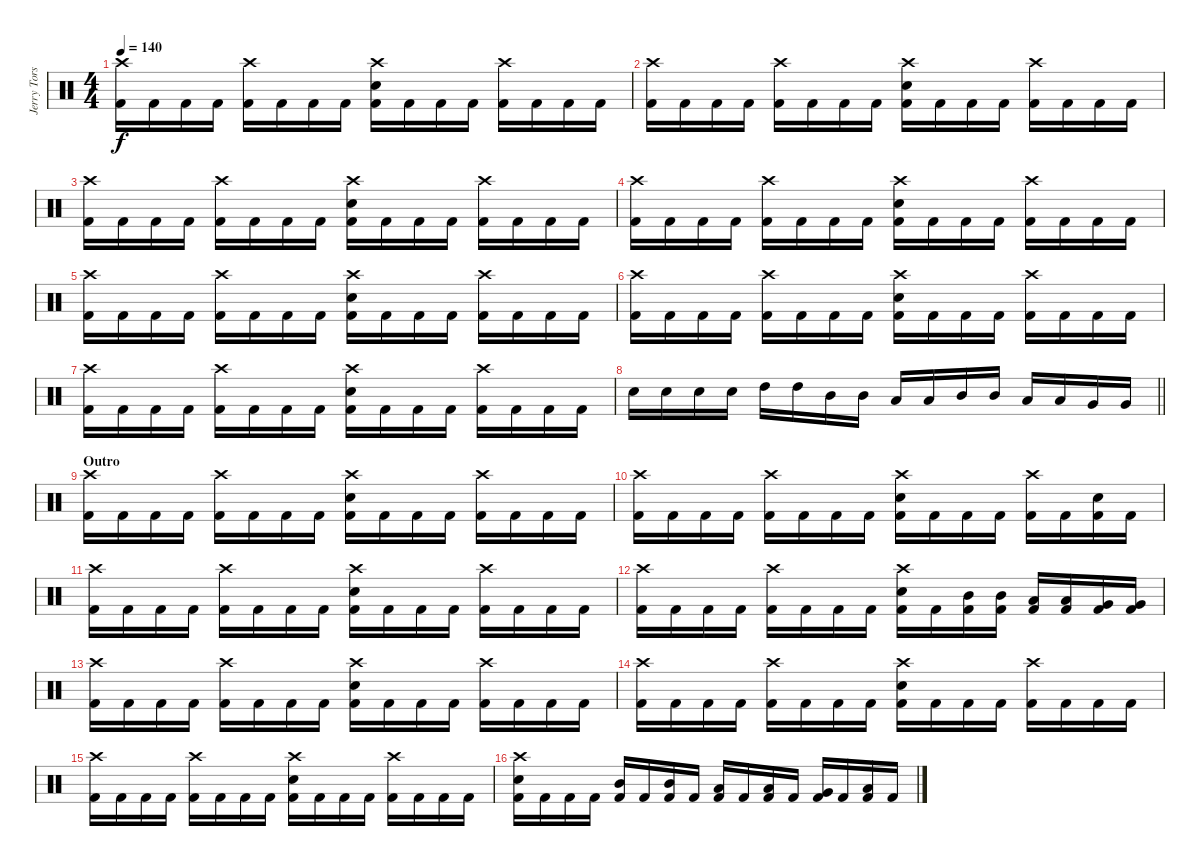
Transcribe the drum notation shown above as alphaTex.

\track ("Jerry Torstensson" "Jerry Tors") {instrument percussion}
\staff {score}
\articulation defaults
\ts (4 4)
\tempo 140
\clef neutral
\ks c
("Crash high (hit)" "Kick (hit) 2").16{dy f} "Kick (hit) 2".16 "Kick (hit) 2".16 "Kick (hit) 2".16 ("Crash high (hit)" "Kick (hit) 2").16 "Kick (hit) 2".16 "Kick (hit) 2".16 "Kick (hit) 2".16 ("Crash high (hit)" "Snare (hit) 2" "Kick (hit) 2").16 "Kick (hit) 2".16 "Kick (hit) 2".16 "Kick (hit) 2".16 ("Crash high (hit)" "Kick (hit) 2").16 "Kick (hit) 2".16 "Kick (hit) 2".16 "Kick (hit) 2".16 |
("Crash high (hit)" "Kick (hit) 2").16 "Kick (hit) 2".16 "Kick (hit) 2".16 "Kick (hit) 2".16 ("Crash high (hit)" "Kick (hit) 2").16 "Kick (hit) 2".16 "Kick (hit) 2".16 "Kick (hit) 2".16 ("Crash high (hit)" "Snare (hit) 2" "Kick (hit) 2").16 "Kick (hit) 2".16 "Kick (hit) 2".16 "Kick (hit) 2".16 ("Crash high (hit)" "Kick (hit) 2").16 "Kick (hit) 2".16 "Kick (hit) 2".16 "Kick (hit) 2".16 |
("Crash high (hit)" "Kick (hit) 2").16 "Kick (hit) 2".16 "Kick (hit) 2".16 "Kick (hit) 2".16 ("Crash high (hit)" "Kick (hit) 2").16 "Kick (hit) 2".16 "Kick (hit) 2".16 "Kick (hit) 2".16 ("Crash high (hit)" "Snare (hit) 2" "Kick (hit) 2").16 "Kick (hit) 2".16 "Kick (hit) 2".16 "Kick (hit) 2".16 ("Crash high (hit)" "Kick (hit) 2").16 "Kick (hit) 2".16 "Kick (hit) 2".16 "Kick (hit) 2".16 |
("Crash high (hit)" "Kick (hit) 2").16 "Kick (hit) 2".16 "Kick (hit) 2".16 "Kick (hit) 2".16 ("Crash high (hit)" "Kick (hit) 2").16 "Kick (hit) 2".16 "Kick (hit) 2".16 "Kick (hit) 2".16 ("Crash high (hit)" "Snare (hit) 2" "Kick (hit) 2").16 "Kick (hit) 2".16 "Kick (hit) 2".16 "Kick (hit) 2".16 ("Crash high (hit)" "Kick (hit) 2").16 "Kick (hit) 2".16 "Kick (hit) 2".16 "Kick (hit) 2".16 |
("Crash high (hit)" "Kick (hit) 2").16 "Kick (hit) 2".16 "Kick (hit) 2".16 "Kick (hit) 2".16 ("Crash high (hit)" "Kick (hit) 2").16 "Kick (hit) 2".16 "Kick (hit) 2".16 "Kick (hit) 2".16 ("Crash high (hit)" "Snare (hit) 2" "Kick (hit) 2").16 "Kick (hit) 2".16 "Kick (hit) 2".16 "Kick (hit) 2".16 ("Crash high (hit)" "Kick (hit) 2").16 "Kick (hit) 2".16 "Kick (hit) 2".16 "Kick (hit) 2".16 |
("Crash high (hit)" "Kick (hit) 2").16 "Kick (hit) 2".16 "Kick (hit) 2".16 "Kick (hit) 2".16 ("Crash high (hit)" "Kick (hit) 2").16 "Kick (hit) 2".16 "Kick (hit) 2".16 "Kick (hit) 2".16 ("Crash high (hit)" "Snare (hit) 2" "Kick (hit) 2").16 "Kick (hit) 2".16 "Kick (hit) 2".16 "Kick (hit) 2".16 ("Crash high (hit)" "Kick (hit) 2").16 "Kick (hit) 2".16 "Kick (hit) 2".16 "Kick (hit) 2".16 |
("Crash high (hit)" "Kick (hit) 2").16 "Kick (hit) 2".16 "Kick (hit) 2".16 "Kick (hit) 2".16 ("Crash high (hit)" "Kick (hit) 2").16 "Kick (hit) 2".16 "Kick (hit) 2".16 "Kick (hit) 2".16 ("Crash high (hit)" "Snare (hit) 2" "Kick (hit) 2").16 "Kick (hit) 2".16 "Kick (hit) 2".16 "Kick (hit) 2".16 ("Crash high (hit)" "Kick (hit) 2").16 "Kick (hit) 2".16 "Kick (hit) 2".16 "Kick (hit) 2".16 |
\barLineRight lightlight "Snare (hit) 2".16 "Snare (hit) 2".16 "Snare (hit) 2".16 "Snare (hit) 2".16 "High Tom (hit)".16 "High Tom (hit)".16 "Mid Tom (hit)".16 "Mid Tom (hit)".16 "Low Tom (hit)".16 "Low Tom (hit)".16 "Mid Tom (hit)".16 "Mid Tom (hit)".16 "Low Tom (hit)".16 "Low Tom (hit)".16 "Very Low Tom (hit)".16 "Very Low Tom (hit)".16
|
\section ("" "Outro")
("Crash high (hit)" "Kick (hit) 2").16 "Kick (hit) 2".16 "Kick (hit) 2".16 "Kick (hit) 2".16 ("Crash high (hit)" "Kick (hit) 2").16 "Kick (hit) 2".16 "Kick (hit) 2".16 "Kick (hit) 2".16 ("Crash high (hit)" "Snare (hit) 2" "Kick (hit) 2").16 "Kick (hit) 2".16 "Kick (hit) 2".16 "Kick (hit) 2".16 ("Crash high (hit)" "Kick (hit) 2").16 "Kick (hit) 2".16 "Kick (hit) 2".16 "Kick (hit) 2".16 |
("Crash high (hit)" "Kick (hit) 2").16 "Kick (hit) 2".16 "Kick (hit) 2".16 "Kick (hit) 2".16 ("Crash high (hit)" "Kick (hit) 2").16 "Kick (hit) 2".16 "Kick (hit) 2".16 "Kick (hit) 2".16 ("Crash high (hit)" "Snare (hit) 2" "Kick (hit) 2").16 "Kick (hit) 2".16 "Kick (hit) 2".16 "Kick (hit) 2".16 ("Crash high (hit)" "Kick (hit) 2").16 "Kick (hit) 2".16 ("Snare (hit) 2" "Kick (hit) 2").16 "Kick (hit) 2".16 |
("Crash high (hit)" "Kick (hit) 2").16 "Kick (hit) 2".16 "Kick (hit) 2".16 "Kick (hit) 2".16 ("Crash high (hit)" "Kick (hit) 2").16 "Kick (hit) 2".16 "Kick (hit) 2".16 "Kick (hit) 2".16 ("Crash high (hit)" "Snare (hit) 2" "Kick (hit) 2").16 "Kick (hit) 2".16 "Kick (hit) 2".16 "Kick (hit) 2".16 ("Crash high (hit)" "Kick (hit) 2").16 "Kick (hit) 2".16 "Kick (hit) 2".16 "Kick (hit) 2".16 |
("Crash high (hit)" "Kick (hit) 2").16 "Kick (hit) 2".16 "Kick (hit) 2".16 "Kick (hit) 2".16 ("Crash high (hit)" "Kick (hit) 2").16 "Kick (hit) 2".16 "Kick (hit) 2".16 "Kick (hit) 2".16 ("Crash high (hit)" "Snare (hit) 2" "Kick (hit) 2").16 "Kick (hit) 2".16 ("Mid Tom (hit)" "Kick (hit) 2").16 ("Mid Tom (hit)" "Kick (hit) 2").16 ("Low Tom (hit)" "Kick (hit) 2").16 ("Low Tom (hit)" "Kick (hit) 2").16 ("Very Low Tom (hit)" "Kick (hit) 2").16 ("Very Low Tom (hit)" "Kick (hit) 2").16 |
("Crash high (hit)" "Kick (hit) 2").16 "Kick (hit) 2".16 "Kick (hit) 2".16 "Kick (hit) 2".16 ("Crash high (hit)" "Kick (hit) 2").16 "Kick (hit) 2".16 "Kick (hit) 2".16 "Kick (hit) 2".16 ("Crash high (hit)" "Snare (hit) 2" "Kick (hit) 2").16 "Kick (hit) 2".16 "Kick (hit) 2".16 "Kick (hit) 2".16 ("Crash high (hit)" "Kick (hit) 2").16 "Kick (hit) 2".16 "Kick (hit) 2".16 "Kick (hit) 2".16 |
("Crash high (hit)" "Kick (hit) 2").16 "Kick (hit) 2".16 "Kick (hit) 2".16 "Kick (hit) 2".16 ("Crash high (hit)" "Kick (hit) 2").16 "Kick (hit) 2".16 "Kick (hit) 2".16 "Kick (hit) 2".16 ("Crash high (hit)" "Snare (hit) 2" "Kick (hit) 2").16 "Kick (hit) 2".16 "Kick (hit) 2".16 "Kick (hit) 2".16 ("Crash high (hit)" "Kick (hit) 2").16 "Kick (hit) 2".16 "Kick (hit) 2".16 "Kick (hit) 2".16 |
("Crash high (hit)" "Kick (hit) 2").16 "Kick (hit) 2".16 "Kick (hit) 2".16 "Kick (hit) 2".16 ("Crash high (hit)" "Kick (hit) 2").16 "Kick (hit) 2".16 "Kick (hit) 2".16 "Kick (hit) 2".16 ("Crash high (hit)" "Snare (hit) 2" "Kick (hit) 2").16 "Kick (hit) 2".16 "Kick (hit) 2".16 "Kick (hit) 2".16 ("Crash high (hit)" "Kick (hit) 2").16 "Kick (hit) 2".16 "Kick (hit) 2".16 "Kick (hit) 2".16 |
("Crash high (hit)" "Snare (hit) 2" "Kick (hit) 2").16 "Kick (hit) 2".16 "Kick (hit) 2".16 "Kick (hit) 2".16 ("Mid Tom (hit)" "Kick (hit) 2").16 "Kick (hit) 2".16 ("Mid Tom (hit)" "Kick (hit) 2").16 "Kick (hit) 2".16 ("Low Tom (hit)" "Kick (hit) 2").16 "Kick (hit) 2".16 ("Low Tom (hit)" "Kick (hit) 2").16 "Kick (hit) 2".16 ("Very Low Tom (hit)" "Kick (hit) 2").16 "Kick (hit) 2".16 ("Low Floor Tom (hit)" "Kick (hit) 2").16 "Kick (hit) 2".16
